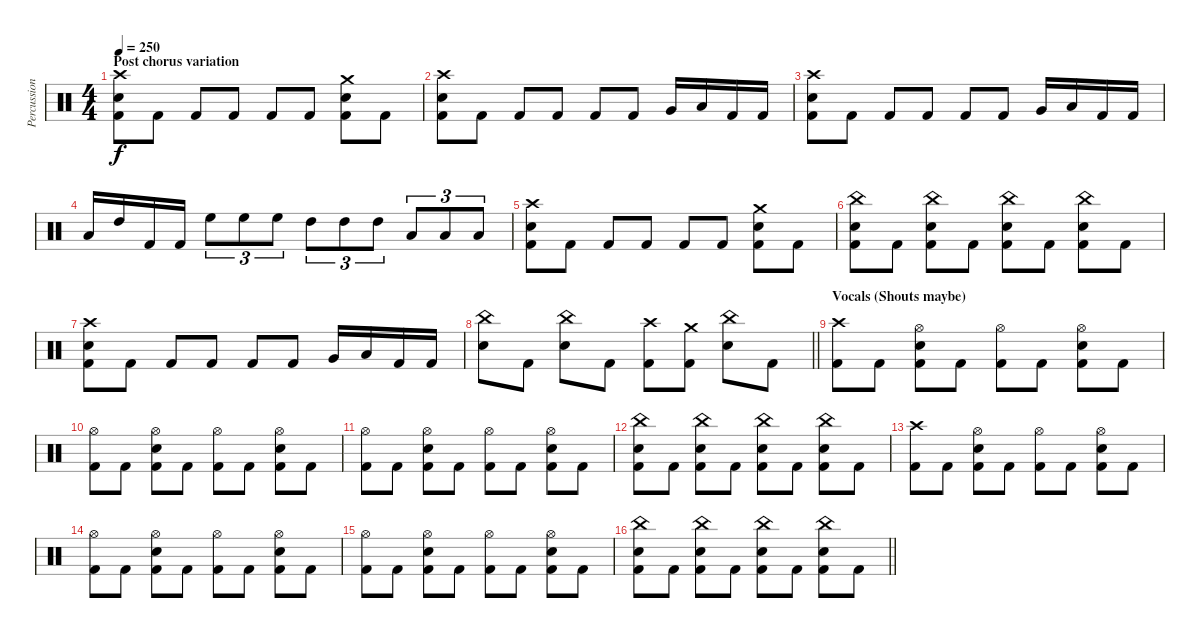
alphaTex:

\track ("Percussion" "Percussion") {instrument percussion}
\staff {score}
\articulation defaults
\ts (4 4)
\section ("" "Post chorus variation ")
\tempo 250
\clef neutral
\ks c
("Crash high (hit)" "Kick (hit) 2" "Electric Snare (hit)").8{dy f} "Kick (hit) 2".8 "Kick (hit) 2".8 "Kick (hit) 2".8 "Kick (hit) 2".8 "Kick (hit) 2".8 ("Crash medium (hit)" "Kick (hit) 2" "Electric Snare (hit)").8 "Kick (hit) 2".8 |
("Crash high (hit)" "Kick (hit) 2" "Electric Snare (hit)").8 "Kick (hit) 2".8 "Kick (hit) 2".8 "Kick (hit) 2".8 "Kick (hit) 2".8 "Kick (hit) 2".8 "Very Low Tom (hit)".16 "Low Tom (hit)".16 "Kick (hit) 2".16 "Kick (hit) 2".16 |
("Crash high (hit)" "Kick (hit) 2" "Electric Snare (hit)").8 "Kick (hit) 2".8 "Kick (hit) 2".8 "Kick (hit) 2".8 "Kick (hit) 2".8 "Kick (hit) 2".8 "Very Low Tom (hit)".16 "Low Tom (hit)".16 "Kick (hit) 2".16 "Kick (hit) 2".16 |
"Low Tom (hit)".16 "High Tom (hit)".16 "Kick (hit) 2".16 "Kick (hit) 2".16 "High Floor Tom (hit)".8{tu (3 2)} "High Floor Tom (hit)".8{tu (3 2)} "High Floor Tom (hit)".8{tu (3 2)} "High Tom (hit)".8{tu (3 2)} "High Tom (hit)".8{tu (3 2)} "High Tom (hit)".8{tu (3 2)} "Low Tom (hit)".8{tu (3 2)} "Low Tom (hit)".8{tu (3 2)} "Low Tom (hit)".8{tu (3 2)} |
("Crash high (hit)" "Kick (hit) 2" "Electric Snare (hit)").8 "Kick (hit) 2".8 "Kick (hit) 2".8 "Kick (hit) 2".8 "Kick (hit) 2".8 "Kick (hit) 2".8 ("Crash medium (hit)" "Kick (hit) 2" "Electric Snare (hit)").8 "Kick (hit) 2".8 |
("China (hit)" "Kick (hit) 2" "Electric Snare (hit)").8 "Kick (hit) 2".8 ("China (hit)" "Kick (hit) 2" "Electric Snare (hit)").8 "Kick (hit) 2".8 ("China (hit)" "Kick (hit) 2" "Electric Snare (hit)").8 "Kick (hit) 2".8 ("China (hit)" "Kick (hit) 2" "Electric Snare (hit)").8 "Kick (hit) 2".8 |
("Crash high (hit)" "Kick (hit) 2" "Electric Snare (hit)").8 "Kick (hit) 2".8 "Kick (hit) 2".8 "Kick (hit) 2".8 "Kick (hit) 2".8 "Kick (hit) 2".8 "Very Low Tom (hit)".16 "Low Tom (hit)".16 "Kick (hit) 2".16 "Kick (hit) 2".16 |
\barLineRight lightlight
("China (hit)" "Electric Snare (hit)").8 "Kick (hit) 2".8 ("China (hit)" "Electric Snare (hit)").8 "Kick (hit) 2".8 ("Crash high (hit)" "Kick (hit) 2").8 ("Crash medium (hit)" "Kick (hit) 2").8 ("China (hit)" "Electric Snare (hit)").8 "Kick (hit) 2".8 |
\section ("" "Vocals (Shouts maybe)")
("Crash high (hit)" "Kick (hit) 2").8 "Kick (hit) 2".8 ("Hi-Hat (open)" "Kick (hit) 2" "Electric Snare (hit)").8 "Kick (hit) 2".8 ("Hi-Hat (open)" "Kick (hit) 2").8 "Kick (hit) 2".8 ("Hi-Hat (open)" "Kick (hit) 2" "Electric Snare (hit)").8 "Kick (hit) 2".8 |
("Hi-Hat (open)" "Kick (hit) 2").8 "Kick (hit) 2".8 ("Hi-Hat (open)" "Kick (hit) 2" "Electric Snare (hit)").8 "Kick (hit) 2".8 ("Hi-Hat (open)" "Kick (hit) 2").8 "Kick (hit) 2".8 ("Hi-Hat (open)" "Kick (hit) 2" "Electric Snare (hit)").8 "Kick (hit) 2".8 |
("Hi-Hat (open)" "Kick (hit) 2").8 "Kick (hit) 2".8 ("Hi-Hat (open)" "Kick (hit) 2" "Electric Snare (hit)").8 "Kick (hit) 2".8 ("Hi-Hat (open)" "Kick (hit) 2").8 "Kick (hit) 2".8 ("Hi-Hat (open)" "Kick (hit) 2" "Electric Snare (hit)").8 "Kick (hit) 2".8 |
("China (hit)" "Kick (hit) 2" "Electric Snare (hit)").8 "Kick (hit) 2".8 ("China (hit)" "Kick (hit) 2" "Electric Snare (hit)").8 "Kick (hit) 2".8 ("China (hit)" "Kick (hit) 2" "Electric Snare (hit)").8 "Kick (hit) 2".8 ("China (hit)" "Kick (hit) 2" "Electric Snare (hit)").8 "Kick (hit) 2".8 |
("Crash high (hit)" "Kick (hit) 2").8 "Kick (hit) 2".8 ("Hi-Hat (open)" "Kick (hit) 2" "Electric Snare (hit)").8 "Kick (hit) 2".8 ("Hi-Hat (open)" "Kick (hit) 2").8 "Kick (hit) 2".8 ("Hi-Hat (open)" "Kick (hit) 2" "Electric Snare (hit)").8 "Kick (hit) 2".8 |
("Hi-Hat (open)" "Kick (hit) 2").8 "Kick (hit) 2".8 ("Hi-Hat (open)" "Kick (hit) 2" "Electric Snare (hit)").8 "Kick (hit) 2".8 ("Hi-Hat (open)" "Kick (hit) 2").8 "Kick (hit) 2".8 ("Hi-Hat (open)" "Kick (hit) 2" "Electric Snare (hit)").8 "Kick (hit) 2".8 |
("Hi-Hat (open)" "Kick (hit) 2").8 "Kick (hit) 2".8 ("Hi-Hat (open)" "Kick (hit) 2" "Electric Snare (hit)").8 "Kick (hit) 2".8 ("Hi-Hat (open)" "Kick (hit) 2").8 "Kick (hit) 2".8 ("Hi-Hat (open)" "Kick (hit) 2" "Electric Snare (hit)").8 "Kick (hit) 2".8 |
\barLineRight lightlight
("China (hit)" "Kick (hit) 2" "Electric Snare (hit)").8 "Kick (hit) 2".8 ("China (hit)" "Kick (hit) 2" "Electric Snare (hit)").8 "Kick (hit) 2".8 ("China (hit)" "Kick (hit) 2" "Electric Snare (hit)").8 "Kick (hit) 2".8 ("China (hit)" "Kick (hit) 2" "Electric Snare (hit)").8 "Kick (hit) 2".8
